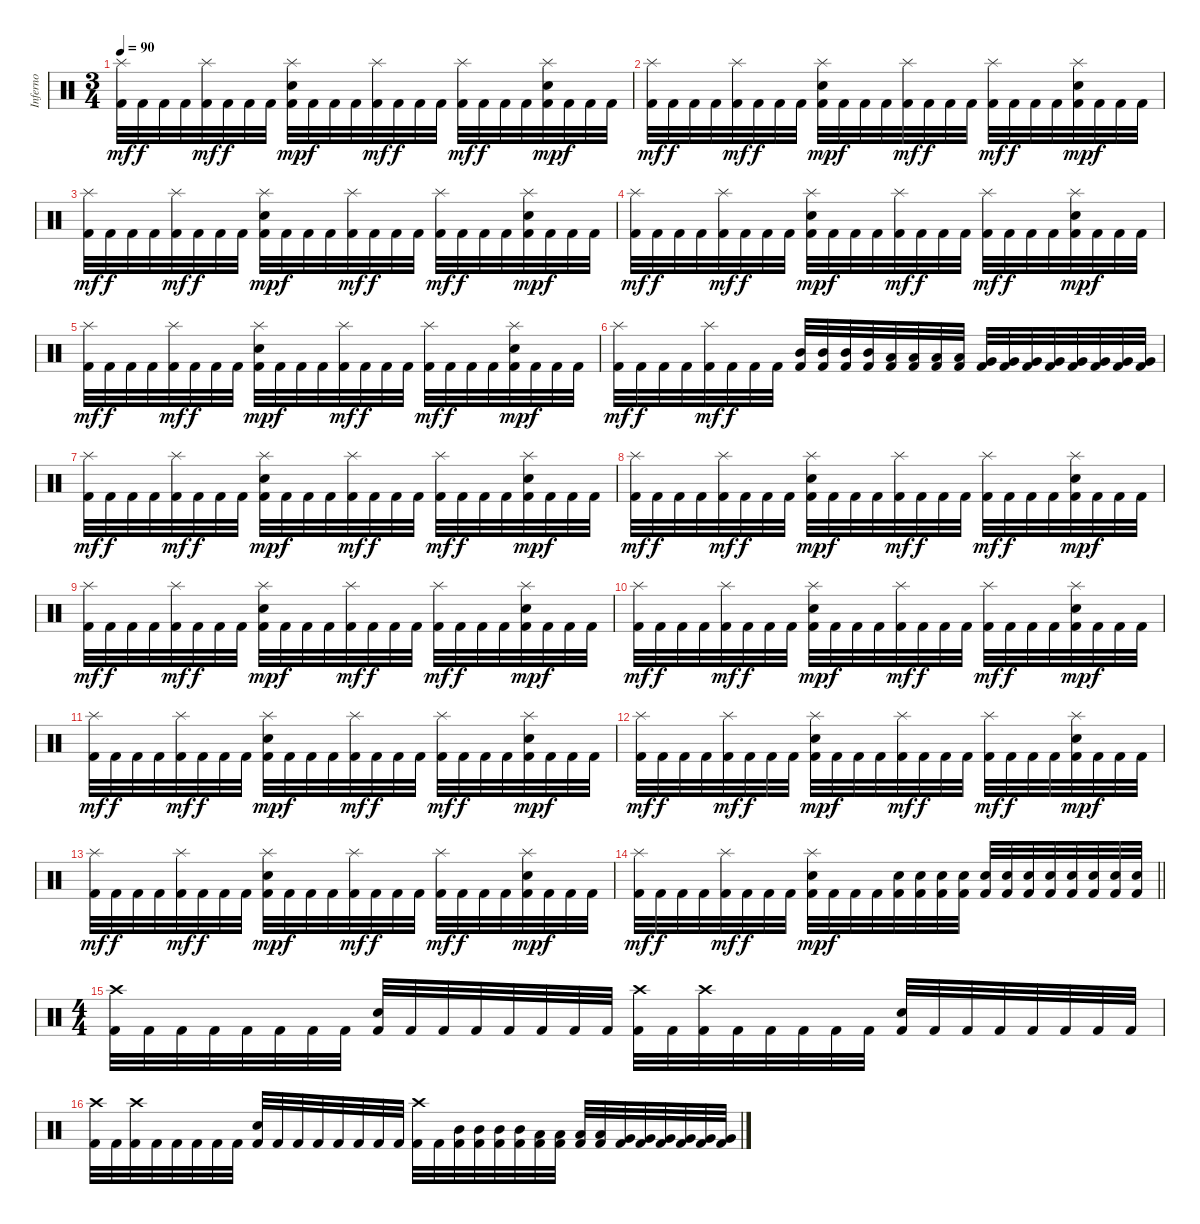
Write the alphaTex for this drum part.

\track ("Inferno" "Inferno") {instrument percussion}
\staff {score}
\articulation defaults
\ts (3 4)
\tempo 90
\clef neutral
\ks c
("Splash (hit)" "Kick (hit) 2").32{dy mf} "Kick (hit) 2".32{dy f} "Kick (hit) 2".32 "Kick (hit) 2".32 ("Splash (hit)" "Kick (hit) 2").32{dy mf} "Kick (hit) 2".32{dy f} "Kick (hit) 2".32 "Kick (hit) 2".32 ("Splash (hit)" "Electric Snare (hit)" "Kick (hit) 2").32{dy mp} "Kick (hit) 2".32{dy f} "Kick (hit) 2".32 "Kick (hit) 2".32 ("Splash (hit)" "Kick (hit) 2").32{dy mf} "Kick (hit) 2".32{dy f} "Kick (hit) 2".32 "Kick (hit) 2".32 ("Splash (hit)" "Kick (hit) 2").32{dy mf} "Kick (hit) 2".32{dy f} "Kick (hit) 2".32 "Kick (hit) 2".32 ("Splash (hit)" "Electric Snare (hit)" "Kick (hit) 2").32{dy mp} "Kick (hit) 2".32{dy f} "Kick (hit) 2".32 "Kick (hit) 2".32 |
("Splash (hit)" "Kick (hit) 2").32{dy mf} "Kick (hit) 2".32{dy f} "Kick (hit) 2".32 "Kick (hit) 2".32 ("Splash (hit)" "Kick (hit) 2").32{dy mf} "Kick (hit) 2".32{dy f} "Kick (hit) 2".32 "Kick (hit) 2".32 ("Splash (hit)" "Electric Snare (hit)" "Kick (hit) 2").32{dy mp} "Kick (hit) 2".32{dy f} "Kick (hit) 2".32 "Kick (hit) 2".32 ("Splash (hit)" "Kick (hit) 2").32{dy mf} "Kick (hit) 2".32{dy f} "Kick (hit) 2".32 "Kick (hit) 2".32 ("Splash (hit)" "Kick (hit) 2").32{dy mf} "Kick (hit) 2".32{dy f} "Kick (hit) 2".32 "Kick (hit) 2".32 ("Splash (hit)" "Electric Snare (hit)" "Kick (hit) 2").32{dy mp} "Kick (hit) 2".32{dy f} "Kick (hit) 2".32 "Kick (hit) 2".32 |
("Splash (hit)" "Kick (hit) 2").32{dy mf} "Kick (hit) 2".32{dy f} "Kick (hit) 2".32 "Kick (hit) 2".32 ("Splash (hit)" "Kick (hit) 2").32{dy mf} "Kick (hit) 2".32{dy f} "Kick (hit) 2".32 "Kick (hit) 2".32 ("Splash (hit)" "Electric Snare (hit)" "Kick (hit) 2").32{dy mp} "Kick (hit) 2".32{dy f} "Kick (hit) 2".32 "Kick (hit) 2".32 ("Splash (hit)" "Kick (hit) 2").32{dy mf} "Kick (hit) 2".32{dy f} "Kick (hit) 2".32 "Kick (hit) 2".32 ("Splash (hit)" "Kick (hit) 2").32{dy mf} "Kick (hit) 2".32{dy f} "Kick (hit) 2".32 "Kick (hit) 2".32 ("Splash (hit)" "Electric Snare (hit)" "Kick (hit) 2").32{dy mp} "Kick (hit) 2".32{dy f} "Kick (hit) 2".32 "Kick (hit) 2".32 |
("Splash (hit)" "Kick (hit) 2").32{dy mf} "Kick (hit) 2".32{dy f} "Kick (hit) 2".32 "Kick (hit) 2".32 ("Splash (hit)" "Kick (hit) 2").32{dy mf} "Kick (hit) 2".32{dy f} "Kick (hit) 2".32 "Kick (hit) 2".32 ("Splash (hit)" "Electric Snare (hit)" "Kick (hit) 2").32{dy mp} "Kick (hit) 2".32{dy f} "Kick (hit) 2".32 "Kick (hit) 2".32 ("Splash (hit)" "Kick (hit) 2").32{dy mf} "Kick (hit) 2".32{dy f} "Kick (hit) 2".32 "Kick (hit) 2".32 ("Splash (hit)" "Kick (hit) 2").32{dy mf} "Kick (hit) 2".32{dy f} "Kick (hit) 2".32 "Kick (hit) 2".32 ("Splash (hit)" "Electric Snare (hit)" "Kick (hit) 2").32{dy mp} "Kick (hit) 2".32{dy f} "Kick (hit) 2".32 "Kick (hit) 2".32 |
("Splash (hit)" "Kick (hit) 2").32{dy mf} "Kick (hit) 2".32{dy f} "Kick (hit) 2".32 "Kick (hit) 2".32 ("Splash (hit)" "Kick (hit) 2").32{dy mf} "Kick (hit) 2".32{dy f} "Kick (hit) 2".32 "Kick (hit) 2".32 ("Splash (hit)" "Electric Snare (hit)" "Kick (hit) 2").32{dy mp} "Kick (hit) 2".32{dy f} "Kick (hit) 2".32 "Kick (hit) 2".32 ("Splash (hit)" "Kick (hit) 2").32{dy mf} "Kick (hit) 2".32{dy f} "Kick (hit) 2".32 "Kick (hit) 2".32 ("Splash (hit)" "Kick (hit) 2").32{dy mf} "Kick (hit) 2".32{dy f} "Kick (hit) 2".32 "Kick (hit) 2".32 ("Splash (hit)" "Electric Snare (hit)" "Kick (hit) 2").32{dy mp} "Kick (hit) 2".32{dy f} "Kick (hit) 2".32 "Kick (hit) 2".32 |
("Splash (hit)" "Kick (hit) 2").32{dy mf} "Kick (hit) 2".32{dy f} "Kick (hit) 2".32 "Kick (hit) 2".32 ("Splash (hit)" "Kick (hit) 2").32{dy mf} "Kick (hit) 2".32{dy f} "Kick (hit) 2".32 "Kick (hit) 2".32 ("Mid Tom (hit)" "Kick (hit) 2").32 ("Mid Tom (hit)" "Kick (hit) 2").32 ("Mid Tom (hit)" "Kick (hit) 2").32 ("Mid Tom (hit)" "Kick (hit) 2").32 ("Low Tom (hit)" "Kick (hit) 2").32 ("Low Tom (hit)" "Kick (hit) 2").32 ("Low Tom (hit)" "Kick (hit) 2").32 ("Low Tom (hit)" "Kick (hit) 2").32 ("Very Low Tom (hit)" "Kick (hit) 2").32 ("Very Low Tom (hit)" "Kick (hit) 2").32 ("Very Low Tom (hit)" "Kick (hit) 2").32 ("Very Low Tom (hit)" "Kick (hit) 2").32 ("Very Low Tom (hit)" "Kick (hit) 2").32 ("Very Low Tom (hit)" "Kick (hit) 2").32 ("Very Low Tom (hit)" "Kick (hit) 2").32 ("Very Low Tom (hit)" "Kick (hit) 2").32 |
("Splash (hit)" "Kick (hit) 2").32{dy mf} "Kick (hit) 2".32{dy f} "Kick (hit) 2".32 "Kick (hit) 2".32 ("Splash (hit)" "Kick (hit) 2").32{dy mf} "Kick (hit) 2".32{dy f} "Kick (hit) 2".32 "Kick (hit) 2".32 ("Splash (hit)" "Electric Snare (hit)" "Kick (hit) 2").32{dy mp} "Kick (hit) 2".32{dy f} "Kick (hit) 2".32 "Kick (hit) 2".32 ("Splash (hit)" "Kick (hit) 2").32{dy mf} "Kick (hit) 2".32{dy f} "Kick (hit) 2".32 "Kick (hit) 2".32 ("Splash (hit)" "Kick (hit) 2").32{dy mf} "Kick (hit) 2".32{dy f} "Kick (hit) 2".32 "Kick (hit) 2".32 ("Splash (hit)" "Electric Snare (hit)" "Kick (hit) 2").32{dy mp} "Kick (hit) 2".32{dy f} "Kick (hit) 2".32 "Kick (hit) 2".32 |
("Splash (hit)" "Kick (hit) 2").32{dy mf} "Kick (hit) 2".32{dy f} "Kick (hit) 2".32 "Kick (hit) 2".32 ("Splash (hit)" "Kick (hit) 2").32{dy mf} "Kick (hit) 2".32{dy f} "Kick (hit) 2".32 "Kick (hit) 2".32 ("Splash (hit)" "Electric Snare (hit)" "Kick (hit) 2").32{dy mp} "Kick (hit) 2".32{dy f} "Kick (hit) 2".32 "Kick (hit) 2".32 ("Splash (hit)" "Kick (hit) 2").32{dy mf} "Kick (hit) 2".32{dy f} "Kick (hit) 2".32 "Kick (hit) 2".32 ("Splash (hit)" "Kick (hit) 2").32{dy mf} "Kick (hit) 2".32{dy f} "Kick (hit) 2".32 "Kick (hit) 2".32 ("Splash (hit)" "Electric Snare (hit)" "Kick (hit) 2").32{dy mp} "Kick (hit) 2".32{dy f} "Kick (hit) 2".32 "Kick (hit) 2".32 |
("Splash (hit)" "Kick (hit) 2").32{dy mf} "Kick (hit) 2".32{dy f} "Kick (hit) 2".32 "Kick (hit) 2".32 ("Splash (hit)" "Kick (hit) 2").32{dy mf} "Kick (hit) 2".32{dy f} "Kick (hit) 2".32 "Kick (hit) 2".32 ("Splash (hit)" "Electric Snare (hit)" "Kick (hit) 2").32{dy mp} "Kick (hit) 2".32{dy f} "Kick (hit) 2".32 "Kick (hit) 2".32 ("Splash (hit)" "Kick (hit) 2").32{dy mf} "Kick (hit) 2".32{dy f} "Kick (hit) 2".32 "Kick (hit) 2".32 ("Splash (hit)" "Kick (hit) 2").32{dy mf} "Kick (hit) 2".32{dy f} "Kick (hit) 2".32 "Kick (hit) 2".32 ("Splash (hit)" "Electric Snare (hit)" "Kick (hit) 2").32{dy mp} "Kick (hit) 2".32{dy f} "Kick (hit) 2".32 "Kick (hit) 2".32 |
("Splash (hit)" "Kick (hit) 2").32{dy mf} "Kick (hit) 2".32{dy f} "Kick (hit) 2".32 "Kick (hit) 2".32 ("Splash (hit)" "Kick (hit) 2").32{dy mf} "Kick (hit) 2".32{dy f} "Kick (hit) 2".32 "Kick (hit) 2".32 ("Splash (hit)" "Electric Snare (hit)" "Kick (hit) 2").32{dy mp} "Kick (hit) 2".32{dy f} "Kick (hit) 2".32 "Kick (hit) 2".32 ("Splash (hit)" "Kick (hit) 2").32{dy mf} "Kick (hit) 2".32{dy f} "Kick (hit) 2".32 "Kick (hit) 2".32 ("Splash (hit)" "Kick (hit) 2").32{dy mf} "Kick (hit) 2".32{dy f} "Kick (hit) 2".32 "Kick (hit) 2".32 ("Splash (hit)" "Electric Snare (hit)" "Kick (hit) 2").32{dy mp} "Kick (hit) 2".32{dy f} "Kick (hit) 2".32 "Kick (hit) 2".32 |
("Splash (hit)" "Kick (hit) 2").32{dy mf} "Kick (hit) 2".32{dy f} "Kick (hit) 2".32 "Kick (hit) 2".32 ("Splash (hit)" "Kick (hit) 2").32{dy mf} "Kick (hit) 2".32{dy f} "Kick (hit) 2".32 "Kick (hit) 2".32 ("Splash (hit)" "Electric Snare (hit)" "Kick (hit) 2").32{dy mp} "Kick (hit) 2".32{dy f} "Kick (hit) 2".32 "Kick (hit) 2".32 ("Splash (hit)" "Kick (hit) 2").32{dy mf} "Kick (hit) 2".32{dy f} "Kick (hit) 2".32 "Kick (hit) 2".32 ("Splash (hit)" "Kick (hit) 2").32{dy mf} "Kick (hit) 2".32{dy f} "Kick (hit) 2".32 "Kick (hit) 2".32 ("Splash (hit)" "Electric Snare (hit)" "Kick (hit) 2").32{dy mp} "Kick (hit) 2".32{dy f} "Kick (hit) 2".32 "Kick (hit) 2".32 |
("Splash (hit)" "Kick (hit) 2").32{dy mf} "Kick (hit) 2".32{dy f} "Kick (hit) 2".32 "Kick (hit) 2".32 ("Splash (hit)" "Kick (hit) 2").32{dy mf} "Kick (hit) 2".32{dy f} "Kick (hit) 2".32 "Kick (hit) 2".32 ("Splash (hit)" "Electric Snare (hit)" "Kick (hit) 2").32{dy mp} "Kick (hit) 2".32{dy f} "Kick (hit) 2".32 "Kick (hit) 2".32 ("Splash (hit)" "Kick (hit) 2").32{dy mf} "Kick (hit) 2".32{dy f} "Kick (hit) 2".32 "Kick (hit) 2".32 ("Splash (hit)" "Kick (hit) 2").32{dy mf} "Kick (hit) 2".32{dy f} "Kick (hit) 2".32 "Kick (hit) 2".32 ("Splash (hit)" "Electric Snare (hit)" "Kick (hit) 2").32{dy mp} "Kick (hit) 2".32{dy f} "Kick (hit) 2".32 "Kick (hit) 2".32 |
("Splash (hit)" "Kick (hit) 2").32{dy mf} "Kick (hit) 2".32{dy f} "Kick (hit) 2".32 "Kick (hit) 2".32 ("Splash (hit)" "Kick (hit) 2").32{dy mf} "Kick (hit) 2".32{dy f} "Kick (hit) 2".32 "Kick (hit) 2".32 ("Splash (hit)" "Electric Snare (hit)" "Kick (hit) 2").32{dy mp} "Kick (hit) 2".32{dy f} "Kick (hit) 2".32 "Kick (hit) 2".32 ("Splash (hit)" "Kick (hit) 2").32{dy mf} "Kick (hit) 2".32{dy f} "Kick (hit) 2".32 "Kick (hit) 2".32 ("Splash (hit)" "Kick (hit) 2").32{dy mf} "Kick (hit) 2".32{dy f} "Kick (hit) 2".32 "Kick (hit) 2".32 ("Splash (hit)" "Electric Snare (hit)" "Kick (hit) 2").32{dy mp} "Kick (hit) 2".32{dy f} "Kick (hit) 2".32 "Kick (hit) 2".32 |
\barLineRight lightlight
("Splash (hit)" "Kick (hit) 2").32{dy mf} "Kick (hit) 2".32{dy f} "Kick (hit) 2".32 "Kick (hit) 2".32 ("Splash (hit)" "Kick (hit) 2").32{dy mf} "Kick (hit) 2".32{dy f} "Kick (hit) 2".32 "Kick (hit) 2".32 ("Splash (hit)" "Electric Snare (hit)" "Kick (hit) 2").32{dy mp} "Kick (hit) 2".32{dy f} "Kick (hit) 2".32 "Kick (hit) 2".32 ("Electric Snare (hit)" "Kick (hit) 2").32 ("Electric Snare (hit)" "Kick (hit) 2").32 ("Electric Snare (hit)" "Kick (hit) 2").32 ("Electric Snare (hit)" "Kick (hit) 2").32 ("Electric Snare (hit)" "Kick (hit) 2").32 ("Electric Snare (hit)" "Kick (hit) 2").32 ("Electric Snare (hit)" "Kick (hit) 2").32 ("Electric Snare (hit)" "Kick (hit) 2").32 ("Electric Snare (hit)" "Kick (hit) 2").32 ("Electric Snare (hit)" "Kick (hit) 2").32 ("Electric Snare (hit)" "Kick (hit) 2").32 ("Electric Snare (hit)" "Kick (hit) 2").32 |
\ts (4 4)
("Crash high (hit)" "Kick (hit) 2").32 "Kick (hit) 2".32 "Kick (hit) 2".32 "Kick (hit) 2".32 "Kick (hit) 2".32 "Kick (hit) 2".32 "Kick (hit) 2".32 "Kick (hit) 2".32 ("Electric Snare (hit)" "Kick (hit) 2").32 "Kick (hit) 2".32 "Kick (hit) 2".32 "Kick (hit) 2".32 "Kick (hit) 2".32 "Kick (hit) 2".32 "Kick (hit) 2".32 "Kick (hit) 2".32 ("Crash high (hit)" "Kick (hit) 2").32 "Kick (hit) 2".32 ("Crash high (hit)" "Kick (hit) 2").32 "Kick (hit) 2".32 "Kick (hit) 2".32 "Kick (hit) 2".32 "Kick (hit) 2".32 "Kick (hit) 2".32 ("Electric Snare (hit)" "Kick (hit) 2").32 "Kick (hit) 2".32 "Kick (hit) 2".32 "Kick (hit) 2".32 "Kick (hit) 2".32 "Kick (hit) 2".32 "Kick (hit) 2".32 "Kick (hit) 2".32 |
("Crash high (hit)" "Kick (hit) 2").32 "Kick (hit) 2".32 ("Crash high (hit)" "Kick (hit) 2").32 "Kick (hit) 2".32 "Kick (hit) 2".32 "Kick (hit) 2".32 "Kick (hit) 2".32 "Kick (hit) 2".32 ("Electric Snare (hit)" "Kick (hit) 2").32 "Kick (hit) 2".32 "Kick (hit) 2".32 "Kick (hit) 2".32 "Kick (hit) 2".32 "Kick (hit) 2".32 "Kick (hit) 2".32 "Kick (hit) 2".32 ("Crash high (hit)" "Kick (hit) 2").32 "Kick (hit) 2".32 ("Mid Tom (hit)" "Kick (hit) 2").32 ("Mid Tom (hit)" "Kick (hit) 2").32 ("Mid Tom (hit)" "Kick (hit) 2").32 ("Mid Tom (hit)" "Kick (hit) 2").32 ("Low Tom (hit)" "Kick (hit) 2").32 ("Low Tom (hit)" "Kick (hit) 2").32 ("Low Tom (hit)" "Kick (hit) 2").32 ("Low Tom (hit)" "Kick (hit) 2").32 ("Very Low Tom (hit)" "Kick (hit) 2").32 ("Very Low Tom (hit)" "Kick (hit) 2").32 ("Very Low Tom (hit)" "Kick (hit) 2").32 ("Very Low Tom (hit)" "Kick (hit) 2").32 ("Very Low Tom (hit)" "Kick (hit) 2").32 ("Very Low Tom (hit)" "Kick (hit) 2").32
